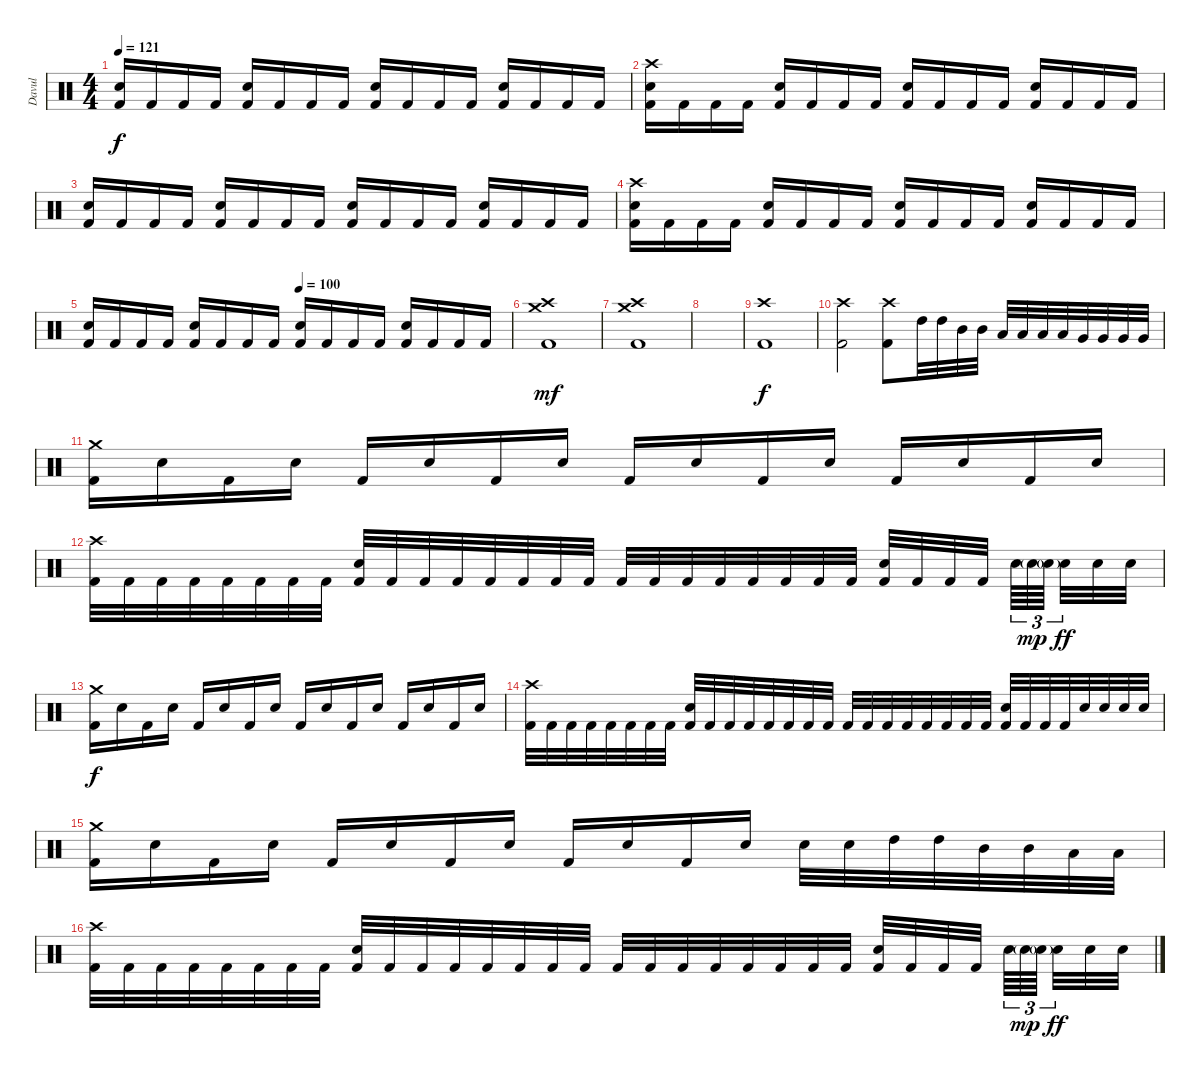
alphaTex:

\track ("Davul" "Davul") {instrument percussion}
\staff {score}
\articulation defaults
\ts (4 4)
\tempo 121
\clef neutral
\ks c
("Electric Snare (hit)" "Kick (hit) 2").16{dy f} "Kick (hit) 2".16 "Kick (hit) 2".16 "Kick (hit) 2".16 ("Electric Snare (hit)" "Kick (hit) 2").16 "Kick (hit) 2".16 "Kick (hit) 2".16 "Kick (hit) 2".16 ("Electric Snare (hit)" "Kick (hit) 2").16 "Kick (hit) 2".16 "Kick (hit) 2".16 "Kick (hit) 2".16 ("Electric Snare (hit)" "Kick (hit) 2").16 "Kick (hit) 2".16 "Kick (hit) 2".16 "Kick (hit) 2".16 |
("Crash high (hit)" "Electric Snare (hit)" "Kick (hit) 2").16 "Kick (hit) 2".16 "Kick (hit) 2".16 "Kick (hit) 2".16 ("Electric Snare (hit)" "Kick (hit) 2").16 "Kick (hit) 2".16 "Kick (hit) 2".16 "Kick (hit) 2".16 ("Electric Snare (hit)" "Kick (hit) 2").16 "Kick (hit) 2".16 "Kick (hit) 2".16 "Kick (hit) 2".16 ("Electric Snare (hit)" "Kick (hit) 2").16 "Kick (hit) 2".16 "Kick (hit) 2".16 "Kick (hit) 2".16 |
("Electric Snare (hit)" "Kick (hit) 2").16 "Kick (hit) 2".16 "Kick (hit) 2".16 "Kick (hit) 2".16 ("Electric Snare (hit)" "Kick (hit) 2").16 "Kick (hit) 2".16 "Kick (hit) 2".16 "Kick (hit) 2".16 ("Electric Snare (hit)" "Kick (hit) 2").16 "Kick (hit) 2".16 "Kick (hit) 2".16 "Kick (hit) 2".16 ("Electric Snare (hit)" "Kick (hit) 2").16 "Kick (hit) 2".16 "Kick (hit) 2".16 "Kick (hit) 2".16 |
("Crash high (hit)" "Electric Snare (hit)" "Kick (hit) 2").16 "Kick (hit) 2".16 "Kick (hit) 2".16 "Kick (hit) 2".16 ("Electric Snare (hit)" "Kick (hit) 2").16 "Kick (hit) 2".16 "Kick (hit) 2".16 "Kick (hit) 2".16 ("Electric Snare (hit)" "Kick (hit) 2").16 "Kick (hit) 2".16 "Kick (hit) 2".16 "Kick (hit) 2".16 ("Electric Snare (hit)" "Kick (hit) 2").16 "Kick (hit) 2".16 "Kick (hit) 2".16 "Kick (hit) 2".16 |
\tempo (100 0.5)
("Electric Snare (hit)" "Kick (hit) 2").16 "Kick (hit) 2".16 "Kick (hit) 2".16 "Kick (hit) 2".16 ("Electric Snare (hit)" "Kick (hit) 2").16 "Kick (hit) 2".16 "Kick (hit) 2".16 "Kick (hit) 2".16 ("Electric Snare (hit)" "Kick (hit) 2").16 "Kick (hit) 2".16 "Kick (hit) 2".16 "Kick (hit) 2".16 ("Electric Snare (hit)" "Kick (hit) 2").16 "Kick (hit) 2".16 "Kick (hit) 2".16 "Kick (hit) 2".16 |
\section ("" "")
("Crash medium (hit)" "Crash high (hit)" "Kick (hit) 2").1{dy mf} |
("Crash medium (hit)" "Crash high (hit)" "Kick (hit) 2").1 |
|
("Crash high (hit)" "Kick (hit) 2").1{dy f} |
("Crash high (hit)" "Kick (hit) 2").2 ("Crash high (hit)" "Kick (hit) 2").8 "High Tom (hit)".32 "High Tom (hit)".32 "Mid Tom (hit)".32 "Mid Tom (hit)".32 "Low Tom (hit)".32 "Low Tom (hit)".32 "Low Tom (hit)".32 "Low Tom (hit)".32 "Very Low Tom (hit)".32 "Very Low Tom (hit)".32 "Very Low Tom (hit)".32 "Very Low Tom (hit)".32 |
("Crash medium (hit)" "Kick (hit) 2").16 "Electric Snare (hit)".16 "Kick (hit) 2".16 "Electric Snare (hit)".16 "Kick (hit) 2".16 "Electric Snare (hit)".16 "Kick (hit) 2".16 "Electric Snare (hit)".16 "Kick (hit) 2".16 "Electric Snare (hit)".16 "Kick (hit) 2".16 "Electric Snare (hit)".16 "Kick (hit) 2".16 "Electric Snare (hit)".16 "Kick (hit) 2".16 "Electric Snare (hit)".16 |
("Crash high (hit)" "Kick (hit) 2").32 "Kick (hit) 2".32 "Kick (hit) 2".32 "Kick (hit) 2".32 "Kick (hit) 2".32 "Kick (hit) 2".32 "Kick (hit) 2".32 "Kick (hit) 2".32 ("Electric Snare (hit)" "Kick (hit) 2").32 "Kick (hit) 2".32 "Kick (hit) 2".32 "Kick (hit) 2".32 "Kick (hit) 2".32 "Kick (hit) 2".32 "Kick (hit) 2".32 "Kick (hit) 2".32 "Kick (hit) 2".32 "Kick (hit) 2".32 "Kick (hit) 2".32 "Kick (hit) 2".32 "Kick (hit) 2".32 "Kick (hit) 2".32 "Kick (hit) 2".32 "Kick (hit) 2".32 ("Electric Snare (hit)" "Kick (hit) 2").32 "Kick (hit) 2".32 "Kick (hit) 2".32 "Kick (hit) 2".32 "Electric Snare (hit)".64{tu (3 2)} "Electric Snare (hit)"{g}.64{tu (3 2) dy mp} "Electric Snare (hit)"{g}.64{tu (3 2)} "Electric Snare (hit)".32{dy ff} "Electric Snare (hit)".32 "Electric Snare (hit)".32 |
("Crash medium (hit)" "Kick (hit) 2").16{dy f} "Electric Snare (hit)".16 "Kick (hit) 2".16 "Electric Snare (hit)".16 "Kick (hit) 2".16 "Electric Snare (hit)".16 "Kick (hit) 2".16 "Electric Snare (hit)".16 "Kick (hit) 2".16 "Electric Snare (hit)".16 "Kick (hit) 2".16 "Electric Snare (hit)".16 "Kick (hit) 2".16 "Electric Snare (hit)".16 "Kick (hit) 2".16 "Electric Snare (hit)".16 |
("Crash high (hit)" "Kick (hit) 2").32 "Kick (hit) 2".32 "Kick (hit) 2".32 "Kick (hit) 2".32 "Kick (hit) 2".32 "Kick (hit) 2".32 "Kick (hit) 2".32 "Kick (hit) 2".32 ("Electric Snare (hit)" "Kick (hit) 2").32 "Kick (hit) 2".32 "Kick (hit) 2".32 "Kick (hit) 2".32 "Kick (hit) 2".32 "Kick (hit) 2".32 "Kick (hit) 2".32 "Kick (hit) 2".32 "Kick (hit) 2".32 "Kick (hit) 2".32 "Kick (hit) 2".32 "Kick (hit) 2".32 "Kick (hit) 2".32 "Kick (hit) 2".32 "Kick (hit) 2".32 "Kick (hit) 2".32 ("Electric Snare (hit)" "Kick (hit) 2").32 "Kick (hit) 2".32 "Kick (hit) 2".32 "Kick (hit) 2".32 "Electric Snare (hit)".32 "Electric Snare (hit)".32 "Electric Snare (hit)".32 "Electric Snare (hit)".32 |
("Crash medium (hit)" "Kick (hit) 2").16 "Electric Snare (hit)".16 "Kick (hit) 2".16 "Electric Snare (hit)".16 "Kick (hit) 2".16 "Electric Snare (hit)".16 "Kick (hit) 2".16 "Electric Snare (hit)".16 "Kick (hit) 2".16 "Electric Snare (hit)".16 "Kick (hit) 2".16 "Electric Snare (hit)".16 "Electric Snare (hit)".32 "Electric Snare (hit)".32 "High Tom (hit)".32 "High Tom (hit)".32 "Mid Tom (hit)".32 "Mid Tom (hit)".32 "Low Tom (hit)".32 "Low Tom (hit)".32 |
("Crash high (hit)" "Kick (hit) 2").32 "Kick (hit) 2".32 "Kick (hit) 2".32 "Kick (hit) 2".32 "Kick (hit) 2".32 "Kick (hit) 2".32 "Kick (hit) 2".32 "Kick (hit) 2".32 ("Electric Snare (hit)" "Kick (hit) 2").32 "Kick (hit) 2".32 "Kick (hit) 2".32 "Kick (hit) 2".32 "Kick (hit) 2".32 "Kick (hit) 2".32 "Kick (hit) 2".32 "Kick (hit) 2".32 "Kick (hit) 2".32 "Kick (hit) 2".32 "Kick (hit) 2".32 "Kick (hit) 2".32 "Kick (hit) 2".32 "Kick (hit) 2".32 "Kick (hit) 2".32 "Kick (hit) 2".32 ("Electric Snare (hit)" "Kick (hit) 2").32 "Kick (hit) 2".32 "Kick (hit) 2".32 "Kick (hit) 2".32 "Electric Snare (hit)".64{tu (3 2)} "Electric Snare (hit)"{g}.64{tu (3 2) dy mp} "Electric Snare (hit)"{g}.64{tu (3 2)} "Electric Snare (hit)".32{dy ff} "Electric Snare (hit)".32 "Electric Snare (hit)".32
